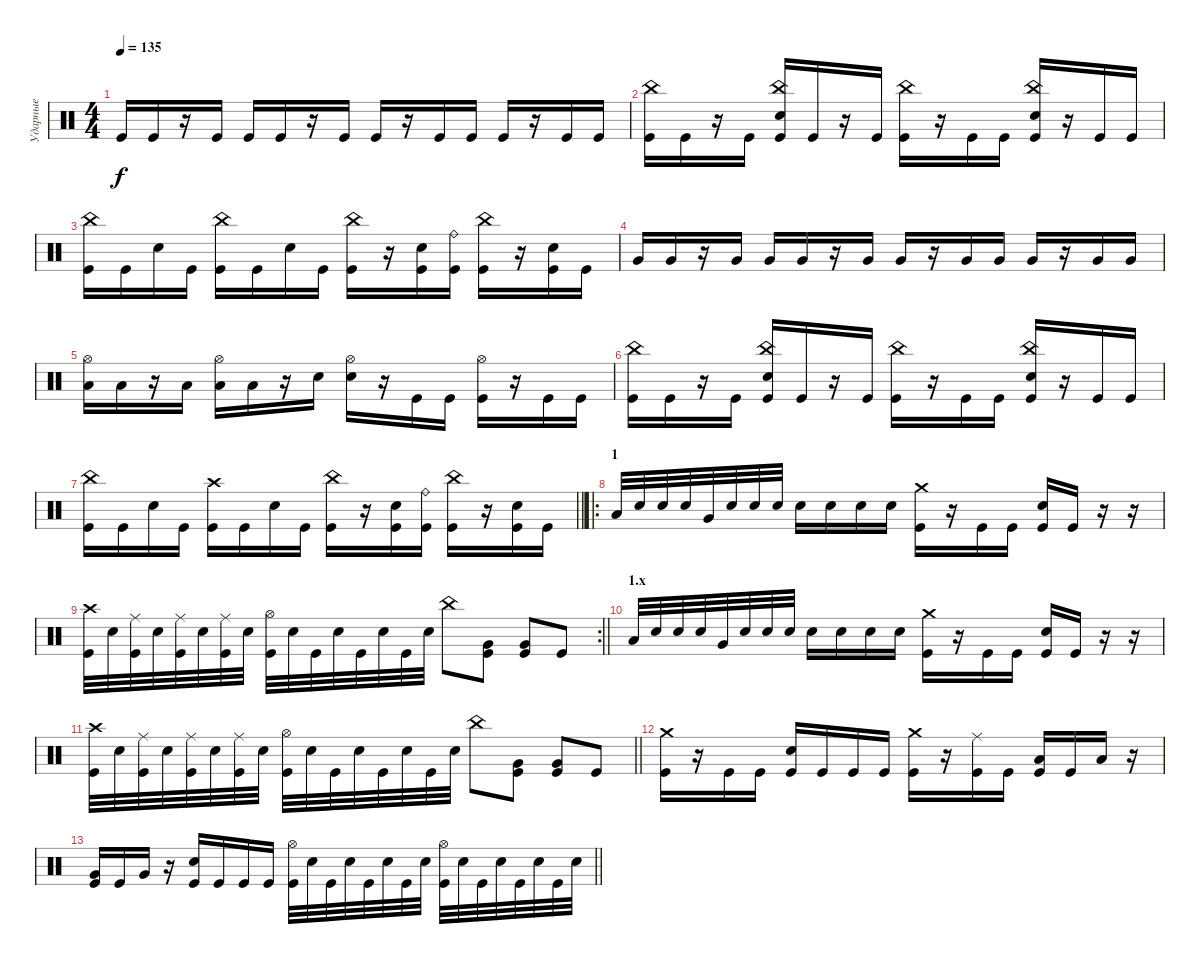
\track ("Ударные" "Ударные") {instrument percussion}
\staff {score}
\articulation defaults
\ts (4 4)
\tempo 135
\clef neutral
\ks c "Kick (hit)".16{dy f} "Kick (hit)".16
r.16 "Kick (hit)".16 "Kick (hit)".16 "Kick (hit)".16 r.16 "Kick (hit)".16 "Kick (hit)".16 r.16 "Kick (hit)".16 "Kick (hit)".16 "Kick (hit)".16 r.16 "Kick (hit)".16 "Kick (hit)".16 |
("China (hit)" "Kick (hit)").16 "Kick (hit)".16 r.16 "Kick (hit)".16 ("China (hit)" "Electric Snare (hit)" "Kick (hit)").16 "Kick (hit)".16 r.16 "Kick (hit)".16 ("China (hit)" "Kick (hit)").16 r.16 "Kick (hit)".16 "Kick (hit)".16 ("China (hit)" "Electric Snare (hit)" "Kick (hit)").16 r.16 "Kick (hit)".16 "Kick (hit)".16 |
("China (hit)" "Kick (hit)").16 "Kick (hit)".16 "Electric Snare (hit)".16 "Kick (hit)".16 ("China (hit)" "Kick (hit)").16 "Kick (hit)".16 "Electric Snare (hit)".16 "Kick (hit)".16 ("China (hit)" "Kick (hit)").16 r.16 ("Electric Snare (hit)" "Kick (hit)").16 ("Ride (bell)" "Kick (hit)").16 ("China (hit)" "Kick (hit)").16 r.16 ("Electric Snare (hit)" "Kick (hit)").16 "Kick (hit)".16 |
"Very Low Tom (hit)".16 "Very Low Tom (hit)".16 r.16 "Very Low Tom (hit)".16 "Very Low Tom (hit)".16 "Very Low Tom (hit)".16 r.16 "Very Low Tom (hit)".16 "Very Low Tom (hit)".16 r.16 "Very Low Tom (hit)".16 "Very Low Tom (hit)".16 "Very Low Tom (hit)".16 r.16 "Very Low Tom (hit)".16 "Very Low Tom (hit)".16 |
("Hi-Hat (open)" "Low Floor Tom (hit)").16 "Low Floor Tom (hit)".16 r.16 "Low Floor Tom (hit)".16 ("Hi-Hat (open)" "Low Floor Tom (hit)").16 "Low Floor Tom (hit)".16 r.16 "Electric Snare (hit)".16 ("Hi-Hat (open)" "Electric Snare (hit)").16 r.16 "Kick (hit)".16 "Kick (hit)".16 ("Hi-Hat (open)" "Kick (hit)").16 r.16 "Kick (hit)".16 "Kick (hit)".16 |
("China (hit)" "Kick (hit)").16 "Kick (hit)".16 r.16 "Kick (hit)".16 ("China (hit)" "Electric Snare (hit)" "Kick (hit)").16 "Kick (hit)".16 r.16 "Kick (hit)".16 ("China (hit)" "Kick (hit)").16 r.16 "Kick (hit)".16 "Kick (hit)".16 ("China (hit)" "Electric Snare (hit)" "Kick (hit)").16 r.16 "Kick (hit)".16 "Kick (hit)".16 |
\barLineRight lightlight
("China (hit)" "Kick (hit)").16 "Kick (hit)".16 "Electric Snare (hit)".16 "Kick (hit)".16 ("Crash high (hit)" "Kick (hit)").16 "Kick (hit)".16 "Electric Snare (hit)".16 "Kick (hit)".16 ("China (hit)" "Kick (hit)").16 r.16 ("Electric Snare (hit)" "Kick (hit)").16 ("Ride (bell)" "Kick (hit)").16 ("China (hit)" "Kick (hit)").16 r.16 ("Electric Snare (hit)" "Kick (hit)").16 "Kick (hit)".16 |
\ro
\section ("" "1")
"Low Tom (hit)".32 "Electric Snare (hit)".32 "Electric Snare (hit)".32 "Electric Snare (hit)".32 "Very Low Tom (hit)".32 "Electric Snare (hit)".32 "Electric Snare (hit)".32 "Electric Snare (hit)".32 "Electric Snare (hit)".16 "Electric Snare (hit)".16 "Electric Snare (hit)".16 "Electric Snare (hit)".16 ("Crash medium (hit)" "Kick (hit)").16 r.16 "Kick (hit)".16 "Kick (hit)".16 ("Electric Snare (hit)" "Kick (hit)").16 "Kick (hit)".16 r.16 r.16 |
\rc 2
\barLineRight lightlight
("Crash high (hit)" "Kick (hit)").32 "Electric Snare (hit)".32 ("Ride (middle)" "Kick (hit)").32 "Electric Snare (hit)".32 ("Ride (middle)" "Kick (hit)").32 "Electric Snare (hit)".32 ("Ride (middle)" "Kick (hit)").32 "Electric Snare (hit)".32 ("Hi-Hat (open)" "Kick (hit)").32 "Electric Snare (hit)".32 "Kick (hit)".32 "Electric Snare (hit)".32 "Kick (hit)".32 "Electric Snare (hit)".32 "Kick (hit)".32 "Electric Snare (hit)".32 "China (hit)".8 ("Very Low Tom (hit)" "Kick (hit)").8 ("Very Low Tom (hit)" "Kick (hit)").8 "Kick (hit)".8 |
\section ("" "1.x")
"Low Tom (hit)".32 "Electric Snare (hit)".32 "Electric Snare (hit)".32 "Electric Snare (hit)".32 "Very Low Tom (hit)".32 "Electric Snare (hit)".32 "Electric Snare (hit)".32 "Electric Snare (hit)".32 "Electric Snare (hit)".16 "Electric Snare (hit)".16 "Electric Snare (hit)".16 "Electric Snare (hit)".16 ("Crash medium (hit)" "Kick (hit)").16 r.16 "Kick (hit)".16 "Kick (hit)".16 ("Electric Snare (hit)" "Kick (hit)").16 "Kick (hit)".16 r.16 r.16 |
\barLineRight lightlight
("Crash high (hit)" "Kick (hit)").32 "Electric Snare (hit)".32 ("Ride (middle)" "Kick (hit)").32 "Electric Snare (hit)".32 ("Ride (middle)" "Kick (hit)").32 "Electric Snare (hit)".32 ("Ride (middle)" "Kick (hit)").32 "Electric Snare (hit)".32 ("Hi-Hat (open)" "Kick (hit)").32 "Electric Snare (hit)".32 "Kick (hit)".32 "Electric Snare (hit)".32 "Kick (hit)".32 "Electric Snare (hit)".32 "Kick (hit)".32 "Electric Snare (hit)".32 "China (hit)".8 ("Very Low Tom (hit)" "Kick (hit)").8 ("Very Low Tom (hit)" "Kick (hit)").8 "Kick (hit)".8 |
("Crash medium (hit)" "Kick (hit)").16 r.16 "Kick (hit)".16 "Kick (hit)".16 ("Electric Snare (hit)" "Kick (hit)").16 "Kick (hit)".16 "Kick (hit)".16 "Kick (hit)".16 ("Crash medium (hit)" "Kick (hit)").16 r.16 ("Ride (middle)" "Kick (hit)").16 "Kick (hit)".16 ("Low Tom (hit)" "Kick (hit)").16 "Kick (hit)".16 "Low Tom (hit)".16 r.16 |
\barLineRight lightlight
("Very Low Tom (hit)" "Kick (hit)").16 "Kick (hit)".16 "Very Low Tom (hit)".16 r.16 ("Electric Snare (hit)" "Kick (hit)").16 "Kick (hit)".16 "Kick (hit)".16 "Kick (hit)".16 ("Hi-Hat (open)" "Kick (hit)").32 "Electric Snare (hit)".32 "Kick (hit)".32 "Electric Snare (hit)".32 "Kick (hit)".32 "Electric Snare (hit)".32 "Kick (hit)".32 "Electric Snare (hit)".32 ("Hi-Hat (open)" "Kick (hit)").32 "Electric Snare (hit)".32 "Kick (hit)".32 "Electric Snare (hit)".32 "Kick (hit)".32 "Electric Snare (hit)".32 "Kick (hit)".32 "Electric Snare (hit)".32
